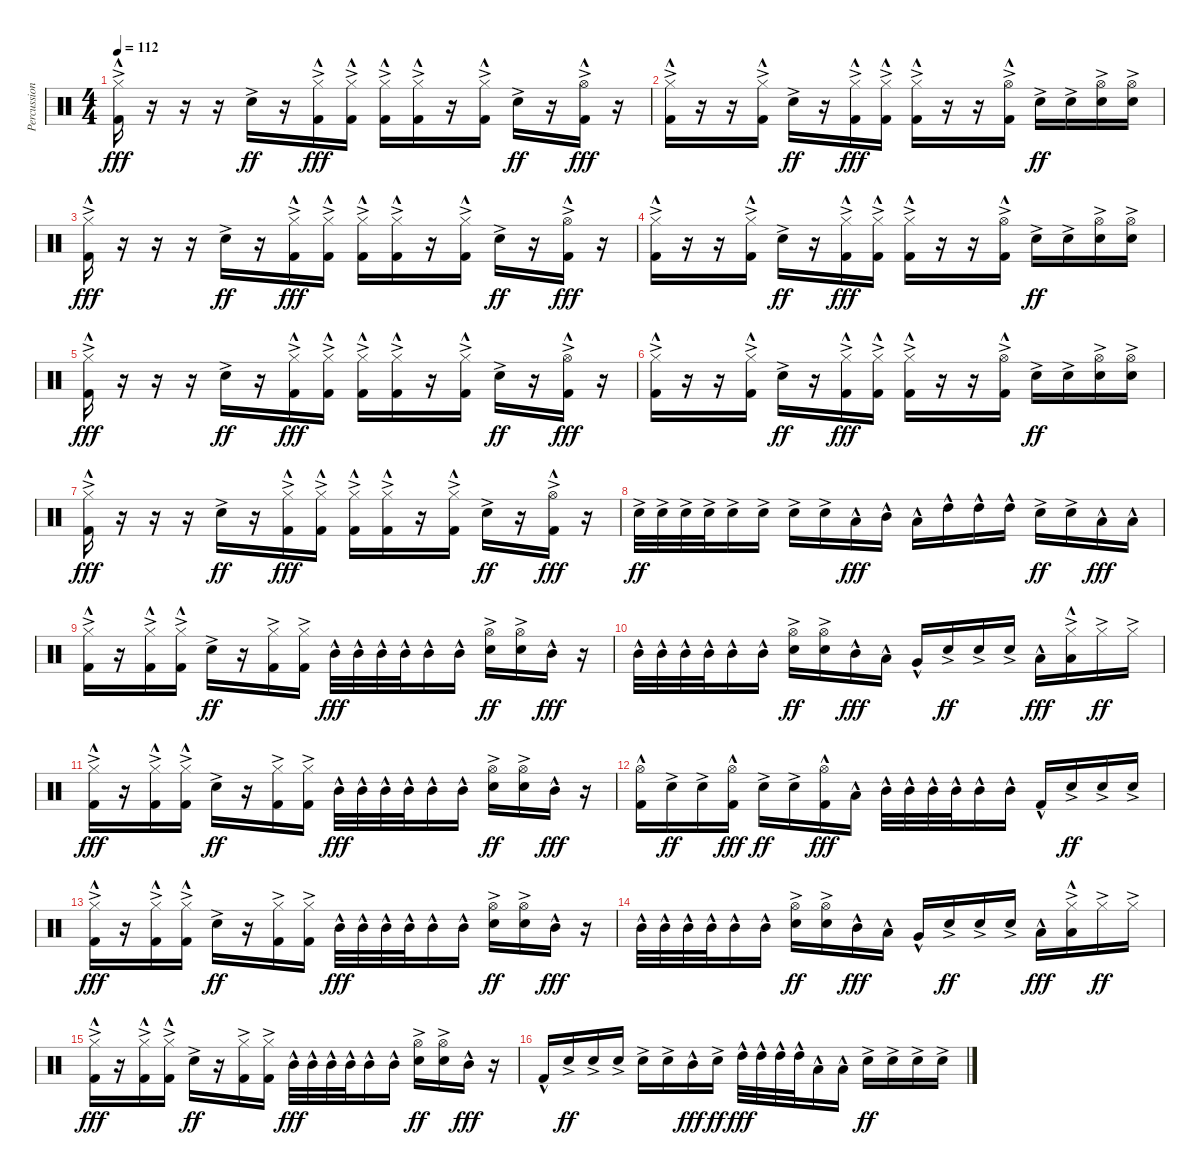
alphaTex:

\track ("Percussion" "Percussion") {instrument percussion}
\staff {score}
\articulation defaults
\ts (4 4)
\tempo 112
\clef neutral
\ks c
("Hi-Hat (closed)"{ac} "Kick (hit) 2"{hac}).16{dy fff} r.16 r.16 r.16 "Snare (hit) 2"{ac}.16{dy ff} r.16 ("Hi-Hat (closed)"{ac} "Kick (hit) 2"{hac}).16{dy fff} ("Hi-Hat (closed)"{ac} "Kick (hit) 2"{hac}).16 ("Hi-Hat (closed)"{ac} "Kick (hit) 2"{hac}).16 ("Hi-Hat (closed)"{ac} "Kick (hit) 2"{hac}).16 r.16 ("Hi-Hat (closed)"{ac} "Kick (hit) 2"{hac}).16 "Snare (hit) 2"{ac}.16{dy ff} r.16 ("Hi-Hat (open)"{ac} "Kick (hit) 2"{hac}).16{dy fff} r.16 |
("Hi-Hat (closed)"{ac} "Kick (hit) 2"{hac}).16 r.16 r.16 ("Hi-Hat (closed)"{ac} "Kick (hit) 2"{hac}).16 "Snare (hit) 2"{ac}.16{dy ff} r.16 ("Hi-Hat (closed)"{ac} "Kick (hit) 2"{hac}).16{dy fff} ("Hi-Hat (closed)"{ac} "Kick (hit) 2"{hac}).16 ("Hi-Hat (closed)"{ac} "Kick (hit) 2"{hac}).16 r.16 r.16 ("Hi-Hat (open)"{ac} "Kick (hit) 2"{hac}).16 "Snare (hit) 2"{ac}.16{dy ff} "Snare (hit) 2"{ac}.16 ("Hi-Hat (open)"{ac} "Snare (hit) 2"{ac}).16 ("Hi-Hat (open)"{ac} "Snare (hit) 2"{ac}).16 |
("Hi-Hat (closed)"{ac} "Kick (hit) 2"{hac}).16{dy fff} r.16 r.16 r.16 "Snare (hit) 2"{ac}.16{dy ff} r.16 ("Hi-Hat (closed)"{ac} "Kick (hit) 2"{hac}).16{dy fff} ("Hi-Hat (closed)"{ac} "Kick (hit) 2"{hac}).16 ("Hi-Hat (closed)"{ac} "Kick (hit) 2"{hac}).16 ("Hi-Hat (closed)"{ac} "Kick (hit) 2"{hac}).16 r.16 ("Hi-Hat (closed)"{ac} "Kick (hit) 2"{hac}).16 "Snare (hit) 2"{ac}.16{dy ff} r.16 ("Hi-Hat (open)"{ac} "Kick (hit) 2"{hac}).16{dy fff} r.16 |
("Hi-Hat (closed)"{ac} "Kick (hit) 2"{hac}).16 r.16 r.16 ("Hi-Hat (closed)"{ac} "Kick (hit) 2"{hac}).16 "Snare (hit) 2"{ac}.16{dy ff} r.16 ("Hi-Hat (closed)"{ac} "Kick (hit) 2"{hac}).16{dy fff} ("Hi-Hat (closed)"{ac} "Kick (hit) 2"{hac}).16 ("Hi-Hat (closed)"{ac} "Kick (hit) 2"{hac}).16 r.16 r.16 ("Hi-Hat (open)"{ac} "Kick (hit) 2"{hac}).16 "Snare (hit) 2"{ac}.16{dy ff} "Snare (hit) 2"{ac}.16 ("Hi-Hat (open)"{ac} "Snare (hit) 2"{ac}).16 ("Hi-Hat (open)"{ac} "Snare (hit) 2"{ac}).16 |
("Hi-Hat (closed)"{ac} "Kick (hit) 2"{hac}).16{dy fff} r.16 r.16 r.16 "Snare (hit) 2"{ac}.16{dy ff} r.16 ("Hi-Hat (closed)"{ac} "Kick (hit) 2"{hac}).16{dy fff} ("Hi-Hat (closed)"{ac} "Kick (hit) 2"{hac}).16 ("Hi-Hat (closed)"{ac} "Kick (hit) 2"{hac}).16 ("Hi-Hat (closed)"{ac} "Kick (hit) 2"{hac}).16 r.16 ("Hi-Hat (closed)"{ac} "Kick (hit) 2"{hac}).16 "Snare (hit) 2"{ac}.16{dy ff} r.16 ("Hi-Hat (open)"{ac} "Kick (hit) 2"{hac}).16{dy fff} r.16 |
("Hi-Hat (closed)"{ac} "Kick (hit) 2"{hac}).16 r.16 r.16 ("Hi-Hat (closed)"{ac} "Kick (hit) 2"{hac}).16 "Snare (hit) 2"{ac}.16{dy ff} r.16 ("Hi-Hat (closed)"{ac} "Kick (hit) 2"{hac}).16{dy fff} ("Hi-Hat (closed)"{ac} "Kick (hit) 2"{hac}).16 ("Hi-Hat (closed)"{ac} "Kick (hit) 2"{hac}).16 r.16 r.16 ("Hi-Hat (open)"{ac} "Kick (hit) 2"{hac}).16 "Snare (hit) 2"{ac}.16{dy ff} "Snare (hit) 2"{ac}.16 ("Hi-Hat (open)"{ac} "Snare (hit) 2"{ac}).16 ("Hi-Hat (open)"{ac} "Snare (hit) 2"{ac}).16 |
("Hi-Hat (closed)"{ac} "Kick (hit) 2"{hac}).16{dy fff} r.16 r.16 r.16 "Snare (hit) 2"{ac}.16{dy ff} r.16 ("Hi-Hat (closed)"{ac} "Kick (hit) 2"{hac}).16{dy fff} ("Hi-Hat (closed)"{ac} "Kick (hit) 2"{hac}).16 ("Hi-Hat (closed)"{ac} "Kick (hit) 2"{hac}).16 ("Hi-Hat (closed)"{ac} "Kick (hit) 2"{hac}).16 r.16 ("Hi-Hat (closed)"{ac} "Kick (hit) 2"{hac}).16 "Snare (hit) 2"{ac}.16{dy ff} r.16 ("Hi-Hat (open)"{ac} "Kick (hit) 2"{hac}).16{dy fff} r.16 |
"Snare (hit) 2"{ac}.32{dy ff} "Snare (hit) 2"{ac}.32 "Snare (hit) 2"{ac}.32 "Snare (hit) 2"{ac}.32 "Snare (hit) 2"{ac}.16 "Snare (hit) 2"{ac}.16 "Snare (hit) 2"{ac}.16 "Snare (hit) 2"{ac}.16 "Low Tom (hit)"{hac}.16{dy fff} "Mid Tom (hit)"{hac}.16 "Low Tom (hit)"{hac}.16 "High Tom (hit)"{hac}.16 "High Tom (hit)"{hac}.16 "High Tom (hit)"{hac}.16 "Snare (hit) 2"{ac}.16{dy ff} "Snare (hit) 2"{ac}.16 "Low Tom (hit)"{hac}.16{dy fff} "Low Tom (hit)"{hac}.16 |
("Hi-Hat (closed)"{ac} "Kick (hit) 2"{hac}).16 r.16 ("Hi-Hat (closed)"{ac} "Kick (hit) 2"{hac}).16 ("Hi-Hat (closed)"{ac} "Kick (hit) 2"{hac}).16 "Snare (hit) 2"{ac}.16{dy ff} r.16 ("Hi-Hat (closed)"{ac} "Kick (hit) 2"{ac}).16 ("Hi-Hat (closed)"{ac} "Kick (hit) 2"{ac}).16 "Mid Tom (hit)"{hac}.32{dy fff} "Mid Tom (hit)"{hac}.32 "Mid Tom (hit)"{hac}.32 "Mid Tom (hit)"{hac}.32 "Mid Tom (hit)"{hac}.16 "Mid Tom (hit)"{hac}.16 ("Hi-Hat (open)"{ac} "Snare (hit) 2"{ac}).16{dy ff} ("Hi-Hat (open)"{ac} "Snare (hit) 2"{ac}).16 "Mid Tom (hit)"{hac}.16{dy fff} r.16 |
"Mid Tom (hit)"{hac}.32 "Mid Tom (hit)"{hac}.32 "Mid Tom (hit)"{hac}.32 "Mid Tom (hit)"{hac}.32 "Mid Tom (hit)"{hac}.16 "Mid Tom (hit)"{hac}.16 ("Hi-Hat (open)"{ac} "Snare (hit) 2"{ac}).16{dy ff} ("Hi-Hat (open)"{ac} "Snare (hit) 2"{ac}).16 "Mid Tom (hit)"{hac}.16{dy fff} "Low Tom (hit)"{hac}.16 "Very Low Tom (hit)"{hac}.16 "Snare (hit) 2"{ac}.16{dy ff} "Snare (hit) 2"{ac}.16 "Snare (hit) 2"{ac}.16 "Low Tom (hit)"{hac}.16{dy fff} ("Hi-Hat (closed)"{ac} "Low Tom (hit)"{hac}).16 "Hi-Hat (closed)"{ac}.16{dy ff} "Hi-Hat (closed)"{ac}.16 |
("Hi-Hat (closed)"{ac} "Kick (hit) 2"{hac}).16{dy fff} r.16 ("Hi-Hat (closed)"{ac} "Kick (hit) 2"{hac}).16 ("Hi-Hat (closed)"{ac} "Kick (hit) 2"{hac}).16 "Snare (hit) 2"{ac}.16{dy ff} r.16 ("Hi-Hat (closed)"{ac} "Kick (hit) 2"{ac}).16 ("Hi-Hat (closed)"{ac} "Kick (hit) 2"{ac}).16 "Mid Tom (hit)"{hac}.32{dy fff} "Mid Tom (hit)"{hac}.32 "Mid Tom (hit)"{hac}.32 "Mid Tom (hit)"{hac}.32 "Mid Tom (hit)"{hac}.16 "Mid Tom (hit)"{hac}.16 ("Hi-Hat (open)"{ac} "Snare (hit) 2"{ac}).16{dy ff} ("Hi-Hat (open)"{ac} "Snare (hit) 2"{ac}).16 "Mid Tom (hit)"{hac}.16{dy fff} r.16 |
("Hi-Hat (open)" "Kick (hit) 2"{hac}).16 "Snare (hit) 2"{ac}.16{dy ff} "Snare (hit) 2"{ac}.16 ("Hi-Hat (open)" "Kick (hit) 2"{hac}).16{dy fff} "Snare (hit) 2"{ac}.16{dy ff} "Snare (hit) 2"{ac}.16 ("Hi-Hat (open)" "Kick (hit) 2"{hac}).16{dy fff} "Low Tom (hit)"{hac}.16 "Mid Tom (hit)"{hac}.32 "Mid Tom (hit)"{hac}.32 "Mid Tom (hit)"{hac}.32 "Mid Tom (hit)"{hac}.32 "Mid Tom (hit)"{hac}.16 "Mid Tom (hit)"{hac}.16 "Kick (hit) 2"{hac}.16 "Snare (hit) 2"{ac}.16{dy ff} "Snare (hit) 2"{ac}.16 "Snare (hit) 2"{ac}.16 |
("Hi-Hat (closed)"{ac} "Kick (hit) 2"{hac}).16{dy fff} r.16 ("Hi-Hat (closed)"{ac} "Kick (hit) 2"{hac}).16 ("Hi-Hat (closed)"{ac} "Kick (hit) 2"{hac}).16 "Snare (hit) 2"{ac}.16{dy ff} r.16 ("Hi-Hat (closed)"{ac} "Kick (hit) 2"{ac}).16 ("Hi-Hat (closed)"{ac} "Kick (hit) 2"{ac}).16 "Mid Tom (hit)"{hac}.32{dy fff} "Mid Tom (hit)"{hac}.32 "Mid Tom (hit)"{hac}.32 "Mid Tom (hit)"{hac}.32 "Mid Tom (hit)"{hac}.16 "Mid Tom (hit)"{hac}.16 ("Hi-Hat (open)"{ac} "Snare (hit) 2"{ac}).16{dy ff} ("Hi-Hat (open)"{ac} "Snare (hit) 2"{ac}).16 "Mid Tom (hit)"{hac}.16{dy fff} r.16 |
"Mid Tom (hit)"{hac}.32 "Mid Tom (hit)"{hac}.32 "Mid Tom (hit)"{hac}.32 "Mid Tom (hit)"{hac}.32 "Mid Tom (hit)"{hac}.16 "Mid Tom (hit)"{hac}.16 ("Hi-Hat (open)"{ac} "Snare (hit) 2"{ac}).16{dy ff} ("Hi-Hat (open)"{ac} "Snare (hit) 2"{ac}).16 "Mid Tom (hit)"{hac}.16{dy fff} "Low Tom (hit)"{hac}.16 "Very Low Tom (hit)"{hac}.16 "Snare (hit) 2"{ac}.16{dy ff} "Snare (hit) 2"{ac}.16 "Snare (hit) 2"{ac}.16 "Low Tom (hit)"{hac}.16{dy fff} ("Hi-Hat (closed)"{ac} "Low Tom (hit)"{hac}).16 "Hi-Hat (closed)"{ac}.16{dy ff} "Hi-Hat (closed)"{ac}.16 |
("Hi-Hat (closed)"{ac} "Kick (hit) 2"{hac}).16{dy fff} r.16 ("Hi-Hat (closed)"{ac} "Kick (hit) 2"{hac}).16 ("Hi-Hat (closed)"{ac} "Kick (hit) 2"{hac}).16 "Snare (hit) 2"{ac}.16{dy ff} r.16 ("Hi-Hat (closed)"{ac} "Kick (hit) 2"{ac}).16 ("Hi-Hat (closed)"{ac} "Kick (hit) 2"{ac}).16 "Mid Tom (hit)"{hac}.32{dy fff} "Mid Tom (hit)"{hac}.32 "Mid Tom (hit)"{hac}.32 "Mid Tom (hit)"{hac}.32 "Mid Tom (hit)"{hac}.16 "Mid Tom (hit)"{hac}.16 ("Hi-Hat (open)"{ac} "Snare (hit) 2"{ac}).16{dy ff} ("Hi-Hat (open)"{ac} "Snare (hit) 2"{ac}).16 "Mid Tom (hit)"{hac}.16{dy fff} r.16 |
"Kick (hit) 2"{hac}.16 "Snare (hit) 2"{ac}.16{dy ff} "Snare (hit) 2"{ac}.16 "Snare (hit) 2"{ac}.16 "Snare (hit) 2"{ac}.16 "Snare (hit) 2"{ac}.16 "Mid Tom (hit)"{hac}.16{dy fff} "Snare (hit) 2"{ac}.16{dy ff} "High Tom (hit)"{hac}.32{dy fff} "High Tom (hit)"{hac}.32 "High Tom (hit)"{hac}.32 "High Tom (hit)"{hac}.32 "Low Tom (hit)"{hac}.16 "Low Tom (hit)"{hac}.16 "Snare (hit) 2"{ac}.16{dy ff} "Snare (hit) 2"{ac}.16 "Snare (hit) 2"{ac}.16 "Snare (hit) 2"{ac}.16
